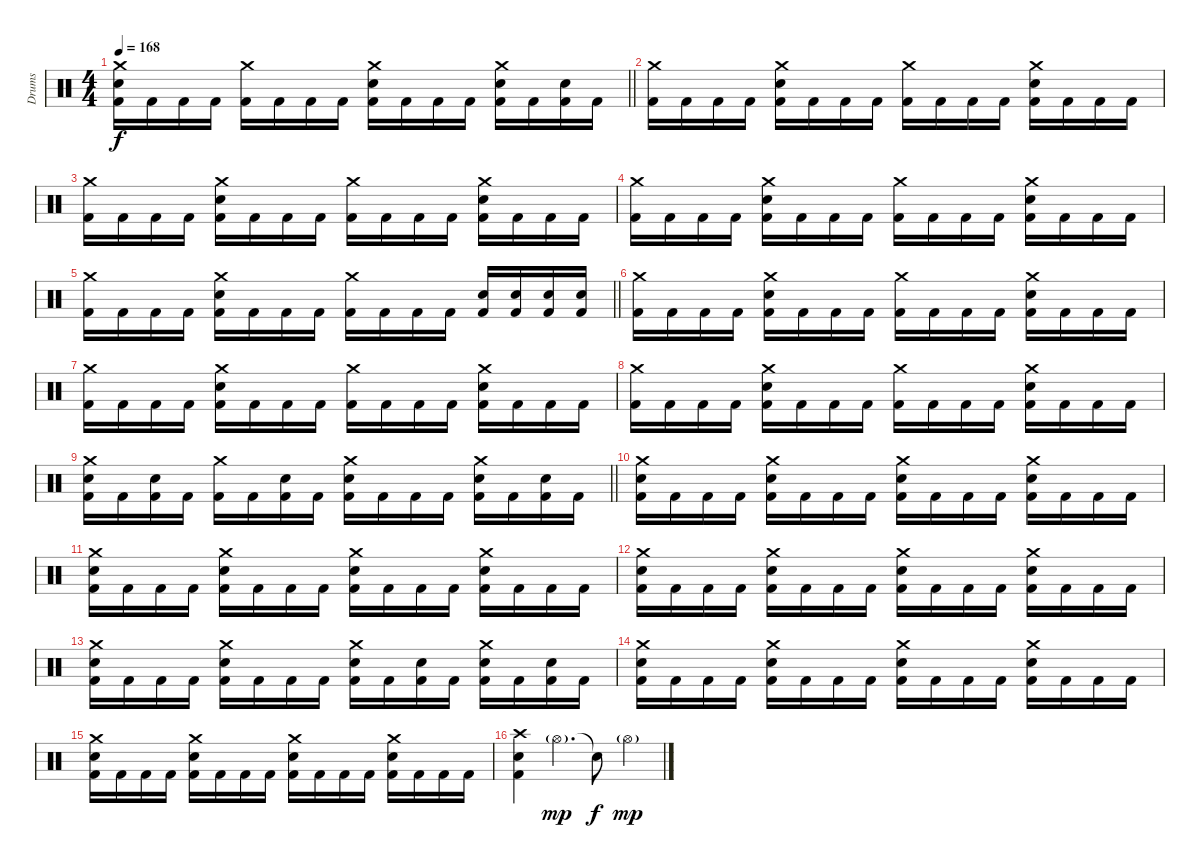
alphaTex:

\track ("Drums" "Drums") {instrument percussion}
\staff {score}
\articulation defaults
\ts (4 4)
\tempo 168
\clef neutral
\barLineRight lightlight
\ks c
("Crash medium (hit)" "Snare (hit) 2" "Kick (hit) 2").16{dy f} "Kick (hit) 2".16 "Kick (hit) 2".16 "Kick (hit) 2".16 ("Crash medium (hit)" "Kick (hit) 2").16 "Kick (hit) 2".16 "Kick (hit) 2".16 "Kick (hit) 2".16 ("Crash medium (hit)" "Snare (hit) 2" "Kick (hit) 2").16 "Kick (hit) 2".16 "Kick (hit) 2".16 "Kick (hit) 2".16 ("Crash medium (hit)" "Snare (hit) 2" "Kick (hit) 2").16 "Kick (hit) 2".16 ("Snare (hit) 2" "Kick (hit) 2").16 "Kick (hit) 2".16 |
("Crash medium (hit)" "Kick (hit) 2").16 "Kick (hit) 2".16 "Kick (hit) 2".16 "Kick (hit) 2".16 ("Crash medium (hit)" "Snare (hit) 2" "Kick (hit) 2").16 "Kick (hit) 2".16 "Kick (hit) 2".16 "Kick (hit) 2".16 ("Crash medium (hit)" "Kick (hit) 2").16 "Kick (hit) 2".16 "Kick (hit) 2".16 "Kick (hit) 2".16 ("Crash medium (hit)" "Snare (hit) 2" "Kick (hit) 2").16 "Kick (hit) 2".16 "Kick (hit) 2".16 "Kick (hit) 2".16 |
("Crash medium (hit)" "Kick (hit) 2").16 "Kick (hit) 2".16 "Kick (hit) 2".16 "Kick (hit) 2".16 ("Crash medium (hit)" "Snare (hit) 2" "Kick (hit) 2").16 "Kick (hit) 2".16 "Kick (hit) 2".16 "Kick (hit) 2".16 ("Crash medium (hit)" "Kick (hit) 2").16 "Kick (hit) 2".16 "Kick (hit) 2".16 "Kick (hit) 2".16 ("Crash medium (hit)" "Snare (hit) 2" "Kick (hit) 2").16 "Kick (hit) 2".16 "Kick (hit) 2".16 "Kick (hit) 2".16 |
("Crash medium (hit)" "Kick (hit) 2").16 "Kick (hit) 2".16 "Kick (hit) 2".16 "Kick (hit) 2".16 ("Crash medium (hit)" "Snare (hit) 2" "Kick (hit) 2").16 "Kick (hit) 2".16 "Kick (hit) 2".16 "Kick (hit) 2".16 ("Crash medium (hit)" "Kick (hit) 2").16 "Kick (hit) 2".16 "Kick (hit) 2".16 "Kick (hit) 2".16 ("Crash medium (hit)" "Snare (hit) 2" "Kick (hit) 2").16 "Kick (hit) 2".16 "Kick (hit) 2".16 "Kick (hit) 2".16 |
\barLineRight lightlight
("Crash medium (hit)" "Kick (hit) 2").16 "Kick (hit) 2".16 "Kick (hit) 2".16 "Kick (hit) 2".16 ("Crash medium (hit)" "Snare (hit) 2" "Kick (hit) 2").16 "Kick (hit) 2".16 "Kick (hit) 2".16 "Kick (hit) 2".16 ("Crash medium (hit)" "Kick (hit) 2").16 "Kick (hit) 2".16 "Kick (hit) 2".16 "Kick (hit) 2".16 ("Snare (hit) 2" "Kick (hit) 2").16 ("Snare (hit) 2" "Kick (hit) 2").16 ("Snare (hit) 2" "Kick (hit) 2").16 ("Snare (hit) 2" "Kick (hit) 2").16 |
("Crash medium (hit)" "Kick (hit) 2").16 "Kick (hit) 2".16 "Kick (hit) 2".16 "Kick (hit) 2".16 ("Crash medium (hit)" "Snare (hit) 2" "Kick (hit) 2").16 "Kick (hit) 2".16 "Kick (hit) 2".16 "Kick (hit) 2".16 ("Crash medium (hit)" "Kick (hit) 2").16 "Kick (hit) 2".16 "Kick (hit) 2".16 "Kick (hit) 2".16 ("Crash medium (hit)" "Snare (hit) 2" "Kick (hit) 2").16 "Kick (hit) 2".16 "Kick (hit) 2".16 "Kick (hit) 2".16 |
("Crash medium (hit)" "Kick (hit) 2").16 "Kick (hit) 2".16 "Kick (hit) 2".16 "Kick (hit) 2".16 ("Crash medium (hit)" "Snare (hit) 2" "Kick (hit) 2").16 "Kick (hit) 2".16 "Kick (hit) 2".16 "Kick (hit) 2".16 ("Crash medium (hit)" "Kick (hit) 2").16 "Kick (hit) 2".16 "Kick (hit) 2".16 "Kick (hit) 2".16 ("Crash medium (hit)" "Snare (hit) 2" "Kick (hit) 2").16 "Kick (hit) 2".16 "Kick (hit) 2".16 "Kick (hit) 2".16 |
("Crash medium (hit)" "Kick (hit) 2").16 "Kick (hit) 2".16 "Kick (hit) 2".16 "Kick (hit) 2".16 ("Crash medium (hit)" "Snare (hit) 2" "Kick (hit) 2").16 "Kick (hit) 2".16 "Kick (hit) 2".16 "Kick (hit) 2".16 ("Crash medium (hit)" "Kick (hit) 2").16 "Kick (hit) 2".16 "Kick (hit) 2".16 "Kick (hit) 2".16 ("Crash medium (hit)" "Snare (hit) 2" "Kick (hit) 2").16 "Kick (hit) 2".16 "Kick (hit) 2".16 "Kick (hit) 2".16 |
\barLineRight lightlight
("Crash medium (hit)" "Snare (hit) 2" "Kick (hit) 2").16 "Kick (hit) 2".16 ("Snare (hit) 2" "Kick (hit) 2").16 "Kick (hit) 2".16 ("Crash medium (hit)" "Kick (hit) 2").16 "Kick (hit) 2".16 ("Snare (hit) 2" "Kick (hit) 2").16 "Kick (hit) 2".16 ("Crash medium (hit)" "Snare (hit) 2" "Kick (hit) 2").16 "Kick (hit) 2".16 "Kick (hit) 2".16 "Kick (hit) 2".16 ("Crash medium (hit)" "Snare (hit) 2" "Kick (hit) 2").16 "Kick (hit) 2".16 ("Snare (hit) 2" "Kick (hit) 2").16 "Kick (hit) 2".16 |
("Crash medium (hit)" "Snare (hit) 2" "Kick (hit) 2").16 "Kick (hit) 2".16 "Kick (hit) 2".16 "Kick (hit) 2".16 ("Crash medium (hit)" "Snare (hit) 2" "Kick (hit) 2").16 "Kick (hit) 2".16 "Kick (hit) 2".16 "Kick (hit) 2".16 ("Crash medium (hit)" "Snare (hit) 2" "Kick (hit) 2").16 "Kick (hit) 2".16 "Kick (hit) 2".16 "Kick (hit) 2".16 ("Crash medium (hit)" "Snare (hit) 2" "Kick (hit) 2").16 "Kick (hit) 2".16 "Kick (hit) 2".16 "Kick (hit) 2".16 |
("Crash medium (hit)" "Snare (hit) 2" "Kick (hit) 2").16 "Kick (hit) 2".16 "Kick (hit) 2".16 "Kick (hit) 2".16 ("Crash medium (hit)" "Snare (hit) 2" "Kick (hit) 2").16 "Kick (hit) 2".16 "Kick (hit) 2".16 "Kick (hit) 2".16 ("Crash medium (hit)" "Snare (hit) 2" "Kick (hit) 2").16 "Kick (hit) 2".16 "Kick (hit) 2".16 "Kick (hit) 2".16 ("Crash medium (hit)" "Snare (hit) 2" "Kick (hit) 2").16 "Kick (hit) 2".16 "Kick (hit) 2".16 "Kick (hit) 2".16 |
("Crash medium (hit)" "Snare (hit) 2" "Kick (hit) 2").16 "Kick (hit) 2".16 "Kick (hit) 2".16 "Kick (hit) 2".16 ("Crash medium (hit)" "Snare (hit) 2" "Kick (hit) 2").16 "Kick (hit) 2".16 "Kick (hit) 2".16 "Kick (hit) 2".16 ("Crash medium (hit)" "Snare (hit) 2" "Kick (hit) 2").16 "Kick (hit) 2".16 "Kick (hit) 2".16 "Kick (hit) 2".16 ("Crash medium (hit)" "Snare (hit) 2" "Kick (hit) 2").16 "Kick (hit) 2".16 "Kick (hit) 2".16 "Kick (hit) 2".16 |
("Crash medium (hit)" "Snare (hit) 2" "Kick (hit) 2").16 "Kick (hit) 2".16 "Kick (hit) 2".16 "Kick (hit) 2".16 ("Crash medium (hit)" "Snare (hit) 2" "Kick (hit) 2").16 "Kick (hit) 2".16 "Kick (hit) 2".16 "Kick (hit) 2".16 ("Crash medium (hit)" "Snare (hit) 2" "Kick (hit) 2").16 "Kick (hit) 2".16 ("Snare (hit) 2" "Kick (hit) 2").16 "Kick (hit) 2".16 ("Crash medium (hit)" "Snare (hit) 2" "Kick (hit) 2").16 "Kick (hit) 2".16 ("Snare (hit) 2" "Kick (hit) 2").16 "Kick (hit) 2".16 |
("Crash medium (hit)" "Snare (hit) 2" "Kick (hit) 2").16 "Kick (hit) 2".16 "Kick (hit) 2".16 "Kick (hit) 2".16 ("Crash medium (hit)" "Snare (hit) 2" "Kick (hit) 2").16 "Kick (hit) 2".16 "Kick (hit) 2".16 "Kick (hit) 2".16 ("Crash medium (hit)" "Snare (hit) 2" "Kick (hit) 2").16 "Kick (hit) 2".16 "Kick (hit) 2".16 "Kick (hit) 2".16 ("Crash medium (hit)" "Snare (hit) 2" "Kick (hit) 2").16 "Kick (hit) 2".16 "Kick (hit) 2".16 "Kick (hit) 2".16 |
("Crash medium (hit)" "Snare (hit) 2" "Kick (hit) 2").16 "Kick (hit) 2".16 "Kick (hit) 2".16 "Kick (hit) 2".16 ("Crash medium (hit)" "Snare (hit) 2" "Kick (hit) 2").16 "Kick (hit) 2".16 "Kick (hit) 2".16 "Kick (hit) 2".16 ("Crash medium (hit)" "Snare (hit) 2" "Kick (hit) 2").16 "Kick (hit) 2".16 "Kick (hit) 2".16 "Kick (hit) 2".16 ("Crash medium (hit)" "Snare (hit) 2" "Kick (hit) 2").16 "Kick (hit) 2".16 "Kick (hit) 2".16 "Kick (hit) 2".16 |
("Crash high (hit)" "Snare (hit) 2" "Kick (hit) 2").4 "Hi-Hat (open)"{g}.4{d dy mp} "Snare (hit)"{t}.8{dy f} "Hi-Hat (open)"{g}.4{dy mp}
